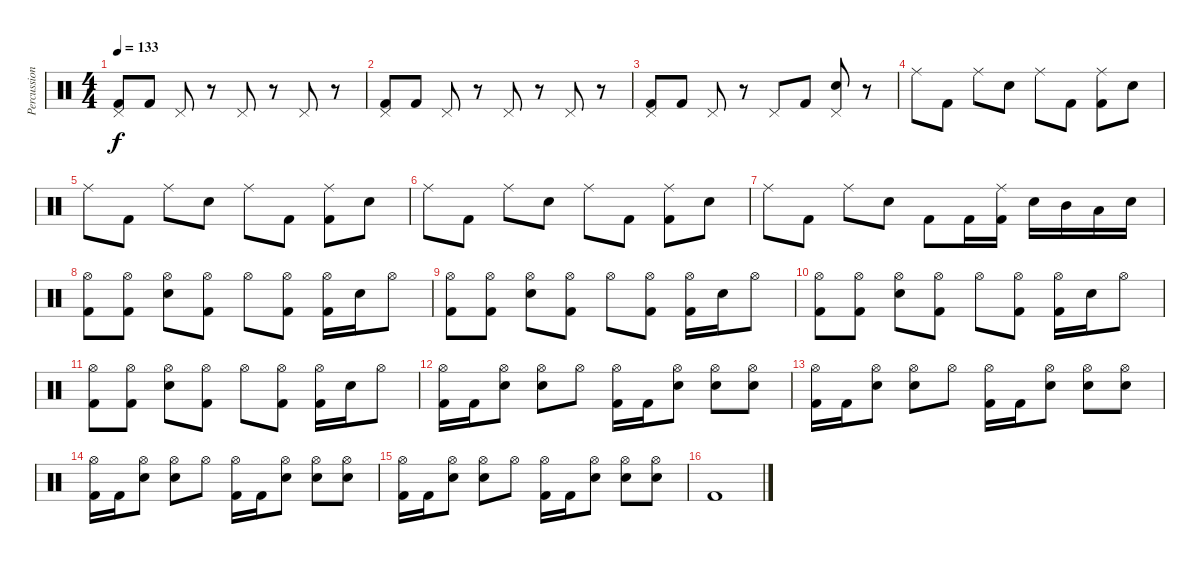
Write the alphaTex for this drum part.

\track ("Percussion" "Percussion") {instrument percussion}
\staff {score}
\articulation defaults
\ts (4 4)
\tempo 133
\clef neutral
\ks c
("Pedal Hi-Hat (hit)" "Kick (hit) 2").8{dy f} "Kick (hit) 2".8 "Pedal Hi-Hat (hit)".8 r.8 "Pedal Hi-Hat (hit)".8 r.8 "Pedal Hi-Hat (hit)".8 r.8 |
("Pedal Hi-Hat (hit)" "Kick (hit) 2").8 "Kick (hit) 2".8 "Pedal Hi-Hat (hit)".8 r.8 "Pedal Hi-Hat (hit)".8 r.8 "Pedal Hi-Hat (hit)".8 r.8 |
("Pedal Hi-Hat (hit)" "Kick (hit) 2").8 "Kick (hit) 2".8 "Pedal Hi-Hat (hit)".8 r.8 "Pedal Hi-Hat (hit)".8 "Kick (hit) 2".8 ("Pedal Hi-Hat (hit)" "Electric Snare (hit)").8 r.8 |
"Ride (middle)".8 "Kick (hit) 2".8 "Ride (middle)".8 "Electric Snare (hit)".8 "Ride (middle)".8 "Kick (hit) 2".8 ("Ride (middle)" "Kick (hit) 2").8 "Electric Snare (hit)".8 |
"Ride (middle)".8 "Kick (hit) 2".8 "Ride (middle)".8 "Electric Snare (hit)".8 "Ride (middle)".8 "Kick (hit) 2".8 ("Ride (middle)" "Kick (hit) 2").8 "Electric Snare (hit)".8 |
"Ride (middle)".8 "Kick (hit) 2".8 "Ride (middle)".8 "Electric Snare (hit)".8 "Ride (middle)".8 "Kick (hit) 2".8 ("Ride (middle)" "Kick (hit) 2").8 "Electric Snare (hit)".8 |
"Ride (middle)".8 "Kick (hit) 2".8 "Ride (middle)".8 "Electric Snare (hit)".8 "Kick (hit) 2".8 "Kick (hit) 2".16 ("Ride (middle)" "Kick (hit) 2").16 "Electric Snare (hit)".16 "Mid Tom (hit)".16 "Low Tom (hit)".16 "Electric Snare (hit)".16 |
("Hi-Hat (open)" "Kick (hit) 2").8 ("Hi-Hat (open)" "Kick (hit) 2").8 ("Hi-Hat (open)" "Electric Snare (hit)").8 ("Hi-Hat (open)" "Kick (hit) 2").8 "Hi-Hat (open)".8 ("Hi-Hat (open)" "Kick (hit) 2").8 ("Hi-Hat (open)" "Kick (hit) 2").16 "Electric Snare (hit)".16 "Hi-Hat (open)".8 |
("Hi-Hat (open)" "Kick (hit) 2").8 ("Hi-Hat (open)" "Kick (hit) 2").8 ("Hi-Hat (open)" "Electric Snare (hit)").8 ("Hi-Hat (open)" "Kick (hit) 2").8 "Hi-Hat (open)".8 ("Hi-Hat (open)" "Kick (hit) 2").8 ("Hi-Hat (open)" "Kick (hit) 2").16 "Electric Snare (hit)".16 "Hi-Hat (open)".8 |
("Hi-Hat (open)" "Kick (hit) 2").8 ("Hi-Hat (open)" "Kick (hit) 2").8 ("Hi-Hat (open)" "Electric Snare (hit)").8 ("Hi-Hat (open)" "Kick (hit) 2").8 "Hi-Hat (open)".8 ("Hi-Hat (open)" "Kick (hit) 2").8 ("Hi-Hat (open)" "Kick (hit) 2").16 "Electric Snare (hit)".16 "Hi-Hat (open)".8 |
("Hi-Hat (open)" "Kick (hit) 2").8 ("Hi-Hat (open)" "Kick (hit) 2").8 ("Hi-Hat (open)" "Electric Snare (hit)").8 ("Hi-Hat (open)" "Kick (hit) 2").8 "Hi-Hat (open)".8 ("Hi-Hat (open)" "Kick (hit) 2").8 ("Hi-Hat (open)" "Kick (hit) 2").16 "Electric Snare (hit)".16 "Hi-Hat (open)".8 |
("Hi-Hat (open)" "Kick (hit) 2").16 "Kick (hit) 2".16 ("Hi-Hat (open)" "Electric Snare (hit)").8 ("Hi-Hat (open)" "Electric Snare (hit)").8 "Hi-Hat (open)".8 ("Hi-Hat (open)" "Kick (hit) 2").16 "Kick (hit) 2".16 ("Hi-Hat (open)" "Electric Snare (hit)").8 ("Hi-Hat (open)" "Electric Snare (hit)").8 ("Hi-Hat (open)" "Electric Snare (hit)").8 |
("Hi-Hat (open)" "Kick (hit) 2").16 "Kick (hit) 2".16 ("Hi-Hat (open)" "Electric Snare (hit)").8 ("Hi-Hat (open)" "Electric Snare (hit)").8 "Hi-Hat (open)".8 ("Hi-Hat (open)" "Kick (hit) 2").16 "Kick (hit) 2".16 ("Hi-Hat (open)" "Electric Snare (hit)").8 ("Hi-Hat (open)" "Electric Snare (hit)").8 ("Hi-Hat (open)" "Electric Snare (hit)").8 |
("Hi-Hat (open)" "Kick (hit) 2").16 "Kick (hit) 2".16 ("Hi-Hat (open)" "Electric Snare (hit)").8 ("Hi-Hat (open)" "Electric Snare (hit)").8 "Hi-Hat (open)".8 ("Hi-Hat (open)" "Kick (hit) 2").16 "Kick (hit) 2".16 ("Hi-Hat (open)" "Electric Snare (hit)").8 ("Hi-Hat (open)" "Electric Snare (hit)").8 ("Hi-Hat (open)" "Electric Snare (hit)").8 |
("Hi-Hat (open)" "Kick (hit) 2").16 "Kick (hit) 2".16 ("Hi-Hat (open)" "Electric Snare (hit)").8 ("Hi-Hat (open)" "Electric Snare (hit)").8 "Hi-Hat (open)".8 ("Hi-Hat (open)" "Kick (hit) 2").16 "Kick (hit) 2".16 ("Hi-Hat (open)" "Electric Snare (hit)").8 ("Hi-Hat (open)" "Electric Snare (hit)").8 ("Hi-Hat (open)" "Electric Snare (hit)").8 |
"Kick (hit) 2".1
